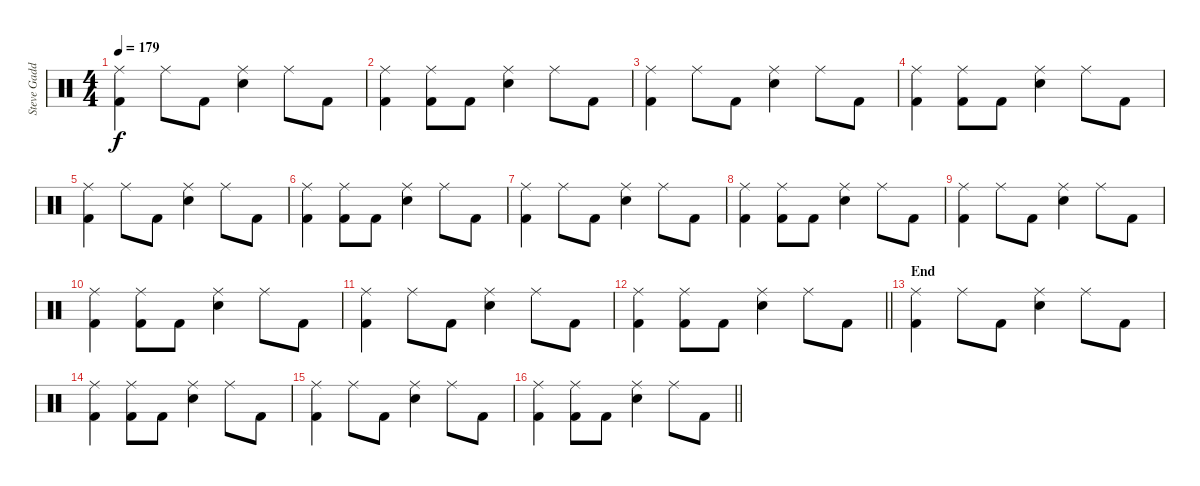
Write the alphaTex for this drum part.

\track ("Steve Gadd" "Steve Gadd") {instrument percussion}
\staff {score}
\articulation defaults
\ts (4 4)
\tempo 179
\clef neutral
\ks c
("Ride (middle)" "Kick (hit) 2").4{dy f} "Ride (middle)".8 "Kick (hit) 2".8 ("Ride (middle)" "Electric Snare (hit)").4 "Ride (middle)".8 "Kick (hit) 2".8 |
("Ride (middle)" "Kick (hit) 2").4 ("Ride (middle)" "Kick (hit) 2").8 "Kick (hit) 2".8 ("Ride (middle)" "Electric Snare (hit)").4 "Ride (middle)".8 "Kick (hit) 2".8 |
("Ride (middle)" "Kick (hit) 2").4 "Ride (middle)".8 "Kick (hit) 2".8 ("Ride (middle)" "Electric Snare (hit)").4 "Ride (middle)".8 "Kick (hit) 2".8 |
("Ride (middle)" "Kick (hit) 2").4 ("Ride (middle)" "Kick (hit) 2").8 "Kick (hit) 2".8 ("Ride (middle)" "Electric Snare (hit)").4 "Ride (middle)".8 "Kick (hit) 2".8 |
("Ride (middle)" "Kick (hit) 2").4 "Ride (middle)".8 "Kick (hit) 2".8 ("Ride (middle)" "Electric Snare (hit)").4 "Ride (middle)".8 "Kick (hit) 2".8 |
("Ride (middle)" "Kick (hit) 2").4 ("Ride (middle)" "Kick (hit) 2").8 "Kick (hit) 2".8 ("Ride (middle)" "Electric Snare (hit)").4 "Ride (middle)".8 "Kick (hit) 2".8 |
("Ride (middle)" "Kick (hit) 2").4 "Ride (middle)".8 "Kick (hit) 2".8 ("Ride (middle)" "Electric Snare (hit)").4 "Ride (middle)".8 "Kick (hit) 2".8 |
("Ride (middle)" "Kick (hit) 2").4 ("Ride (middle)" "Kick (hit) 2").8 "Kick (hit) 2".8 ("Ride (middle)" "Electric Snare (hit)").4 "Ride (middle)".8 "Kick (hit) 2".8 |
("Ride (middle)" "Kick (hit) 2").4 "Ride (middle)".8 "Kick (hit) 2".8 ("Ride (middle)" "Electric Snare (hit)").4 "Ride (middle)".8 "Kick (hit) 2".8 |
("Ride (middle)" "Kick (hit) 2").4 ("Ride (middle)" "Kick (hit) 2").8 "Kick (hit) 2".8 ("Ride (middle)" "Electric Snare (hit)").4 "Ride (middle)".8 "Kick (hit) 2".8 |
("Ride (middle)" "Kick (hit) 2").4 "Ride (middle)".8 "Kick (hit) 2".8 ("Ride (middle)" "Electric Snare (hit)").4 "Ride (middle)".8 "Kick (hit) 2".8 |
\barLineRight lightlight
("Ride (middle)" "Kick (hit) 2").4 ("Ride (middle)" "Kick (hit) 2").8 "Kick (hit) 2".8 ("Ride (middle)" "Electric Snare (hit)").4 "Ride (middle)".8 "Kick (hit) 2".8 |
\section ("" "End")
("Ride (middle)" "Kick (hit) 2").4 "Ride (middle)".8 "Kick (hit) 2".8 ("Ride (middle)" "Electric Snare (hit)").4 "Ride (middle)".8 "Kick (hit) 2".8 |
("Ride (middle)" "Kick (hit) 2").4 ("Ride (middle)" "Kick (hit) 2").8 "Kick (hit) 2".8 ("Ride (middle)" "Electric Snare (hit)").4 "Ride (middle)".8 "Kick (hit) 2".8 |
("Ride (middle)" "Kick (hit) 2").4 "Ride (middle)".8 "Kick (hit) 2".8 ("Ride (middle)" "Electric Snare (hit)").4 "Ride (middle)".8 "Kick (hit) 2".8 |
\barLineRight lightlight
("Ride (middle)" "Kick (hit) 2").4 ("Ride (middle)" "Kick (hit) 2").8 "Kick (hit) 2".8 ("Ride (middle)" "Electric Snare (hit)").4 "Ride (middle)".8 "Kick (hit) 2".8
